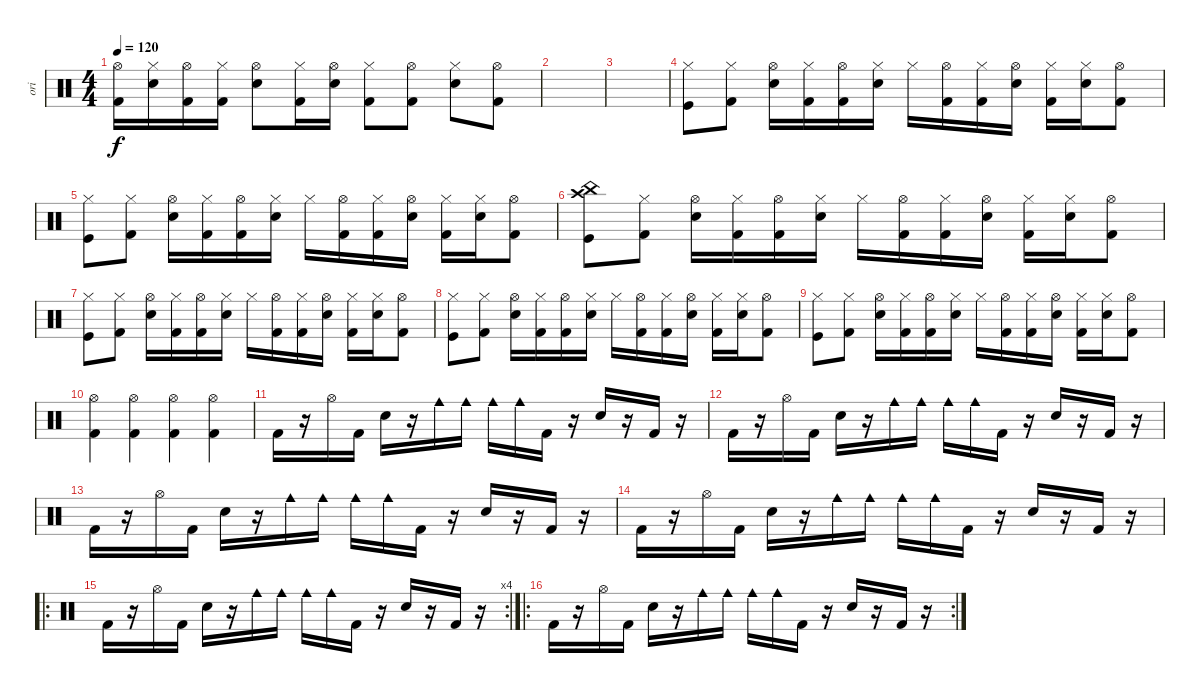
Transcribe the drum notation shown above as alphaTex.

\track ("ori" "ori") {instrument percussion}
\staff {score}
\articulation defaults
\ts (4 4)
\tempo 120
\clef neutral
\ks c
("Kick (hit) 2" "Hi-Hat (open)").16{dy f} ("Electric Snare (hit)" "Hi-Hat (closed)").16 ("Kick (hit) 2" "Hi-Hat (open)").16 ("Kick (hit) 2" "Hi-Hat (closed)").16 ("Electric Snare (hit)" "Hi-Hat (open)").8 ("Kick (hit) 2" "Hi-Hat (closed)").16 ("Electric Snare (hit)" "Hi-Hat (open)").16 ("Kick (hit) 2" "Hi-Hat (closed)").8 ("Kick (hit) 2" "Hi-Hat (open)").8 ("Electric Snare (hit)" "Hi-Hat (closed)").8 ("Kick (hit) 2" "Hi-Hat (open)").8 |
|
|
("Kick (hit)" "Hi-Hat (closed)").8 ("Kick (hit) 2" "Hi-Hat (closed)").8 ("Electric Snare (hit)" "Hi-Hat (open)").16 ("Kick (hit) 2" "Hi-Hat (closed)").16 ("Kick (hit) 2" "Hi-Hat (open)").16 ("Electric Snare (hit)" "Hi-Hat (closed)").16 "Hi-Hat (closed)".16 ("Kick (hit) 2" "Hi-Hat (open)").16 ("Kick (hit) 2" "Hi-Hat (closed)").16 ("Electric Snare (hit)" "Hi-Hat (open)").16 ("Kick (hit) 2" "Hi-Hat (closed)").16 ("Electric Snare (hit)" "Hi-Hat (closed)").16 ("Kick (hit) 2" "Hi-Hat (open)").8 |
("Kick (hit)" "Hi-Hat (closed)").8 ("Kick (hit) 2" "Hi-Hat (closed)").8 ("Electric Snare (hit)" "Hi-Hat (open)").16 ("Kick (hit) 2" "Hi-Hat (closed)").16 ("Kick (hit) 2" "Hi-Hat (open)").16 ("Electric Snare (hit)" "Hi-Hat (closed)").16 "Hi-Hat (closed)".16 ("Kick (hit) 2" "Hi-Hat (open)").16 ("Kick (hit) 2" "Hi-Hat (closed)").16 ("Electric Snare (hit)" "Hi-Hat (open)").16 ("Kick (hit) 2" "Hi-Hat (closed)").16 ("Electric Snare (hit)" "Hi-Hat (closed)").16 ("Kick (hit) 2" "Hi-Hat (open)").8 |
("Kick (hit)" "Crash high (hit)" "China (hit)").8 ("Kick (hit) 2" "Hi-Hat (closed)").8 ("Electric Snare (hit)" "Hi-Hat (open)").16 ("Kick (hit) 2" "Hi-Hat (closed)").16 ("Kick (hit) 2" "Hi-Hat (open)").16 ("Electric Snare (hit)" "Hi-Hat (closed)").16 "Hi-Hat (closed)".16 ("Kick (hit) 2" "Hi-Hat (open)").16 ("Kick (hit) 2" "Hi-Hat (closed)").16 ("Electric Snare (hit)" "Hi-Hat (open)").16 ("Kick (hit) 2" "Hi-Hat (closed)").16 ("Electric Snare (hit)" "Hi-Hat (closed)").16 ("Kick (hit) 2" "Hi-Hat (open)").8 |
("Kick (hit)" "Hi-Hat (closed)").8 ("Kick (hit) 2" "Hi-Hat (closed)").8 ("Electric Snare (hit)" "Hi-Hat (open)").16 ("Kick (hit) 2" "Hi-Hat (closed)").16 ("Kick (hit) 2" "Hi-Hat (open)").16 ("Electric Snare (hit)" "Hi-Hat (closed)").16 "Hi-Hat (closed)".16 ("Kick (hit) 2" "Hi-Hat (open)").16 ("Kick (hit) 2" "Hi-Hat (closed)").16 ("Electric Snare (hit)" "Hi-Hat (open)").16 ("Kick (hit) 2" "Hi-Hat (closed)").16 ("Electric Snare (hit)" "Hi-Hat (closed)").16 ("Kick (hit) 2" "Hi-Hat (open)").8 |
("Kick (hit)" "Hi-Hat (closed)").8 ("Kick (hit) 2" "Hi-Hat (closed)").8 ("Electric Snare (hit)" "Hi-Hat (open)").16 ("Kick (hit) 2" "Hi-Hat (closed)").16 ("Kick (hit) 2" "Hi-Hat (open)").16 ("Electric Snare (hit)" "Hi-Hat (closed)").16 "Hi-Hat (closed)".16 ("Kick (hit) 2" "Hi-Hat (open)").16 ("Kick (hit) 2" "Hi-Hat (closed)").16 ("Electric Snare (hit)" "Hi-Hat (open)").16 ("Kick (hit) 2" "Hi-Hat (closed)").16 ("Electric Snare (hit)" "Hi-Hat (closed)").16 ("Kick (hit) 2" "Hi-Hat (open)").8 |
("Kick (hit)" "Hi-Hat (closed)").8 ("Kick (hit) 2" "Hi-Hat (closed)").8 ("Electric Snare (hit)" "Hi-Hat (open)").16 ("Kick (hit) 2" "Hi-Hat (closed)").16 ("Kick (hit) 2" "Hi-Hat (open)").16 ("Electric Snare (hit)" "Hi-Hat (closed)").16 "Hi-Hat (closed)".16 ("Kick (hit) 2" "Hi-Hat (open)").16 ("Kick (hit) 2" "Hi-Hat (closed)").16 ("Electric Snare (hit)" "Hi-Hat (open)").16 ("Kick (hit) 2" "Hi-Hat (closed)").16 ("Electric Snare (hit)" "Hi-Hat (closed)").16 ("Kick (hit) 2" "Hi-Hat (open)").8 |
("Hi-Hat (open)" "Kick (hit) 2").4 ("Hi-Hat (open)" "Kick (hit) 2").4 ("Hi-Hat (open)" "Kick (hit) 2").4 ("Hi-Hat (open)" "Kick (hit) 2").4 |
"Kick (hit) 2".16 r.16 "Hi-Hat (open)".16 "Kick (hit) 2".16 "Electric Snare (hit)".16 r.16 "Cowbell medium (hit)".16 "Cowbell medium (hit)".16 "Cowbell medium (hit)".16 "Cowbell medium (hit)".16 "Kick (hit) 2".16 r.16 "Electric Snare (hit)".16 r.16 "Kick (hit) 2".16 r.16 |
"Kick (hit) 2".16 r.16 "Hi-Hat (open)".16 "Kick (hit) 2".16 "Electric Snare (hit)".16 r.16 "Cowbell medium (hit)".16 "Cowbell medium (hit)".16 "Cowbell medium (hit)".16 "Cowbell medium (hit)".16 "Kick (hit) 2".16 r.16 "Electric Snare (hit)".16 r.16 "Kick (hit) 2".16 r.16 |
"Kick (hit) 2".16 r.16 "Hi-Hat (open)".16 "Kick (hit) 2".16 "Electric Snare (hit)".16 r.16 "Cowbell medium (hit)".16 "Cowbell medium (hit)".16 "Cowbell medium (hit)".16 "Cowbell medium (hit)".16 "Kick (hit) 2".16 r.16 "Electric Snare (hit)".16 r.16 "Kick (hit) 2".16 r.16 |
"Kick (hit) 2".16 r.16 "Hi-Hat (open)".16 "Kick (hit) 2".16 "Electric Snare (hit)".16 r.16 "Cowbell medium (hit)".16 "Cowbell medium (hit)".16 "Cowbell medium (hit)".16 "Cowbell medium (hit)".16 "Kick (hit) 2".16 r.16 "Electric Snare (hit)".16 r.16 "Kick (hit) 2".16 r.16 |
\ro
\rc 4 "Kick (hit) 2".16
r.16 "Hi-Hat (open)".16 "Kick (hit) 2".16 "Electric Snare (hit)".16 r.16 "Cowbell medium (hit)".16 "Cowbell medium (hit)".16 "Cowbell medium (hit)".16 "Cowbell medium (hit)".16 "Kick (hit) 2".16 r.16 "Electric Snare (hit)".16 r.16 "Kick (hit) 2".16 r.16 |
\ro
\rc 2 "Kick (hit) 2".16
r.16 "Hi-Hat (open)".16 "Kick (hit) 2".16 "Electric Snare (hit)".16 r.16 "Cowbell medium (hit)".16 "Cowbell medium (hit)".16 "Cowbell medium (hit)".16 "Cowbell medium (hit)".16 "Kick (hit) 2".16 r.16 "Electric Snare (hit)".16 r.16 "Kick (hit) 2".16 r.16
